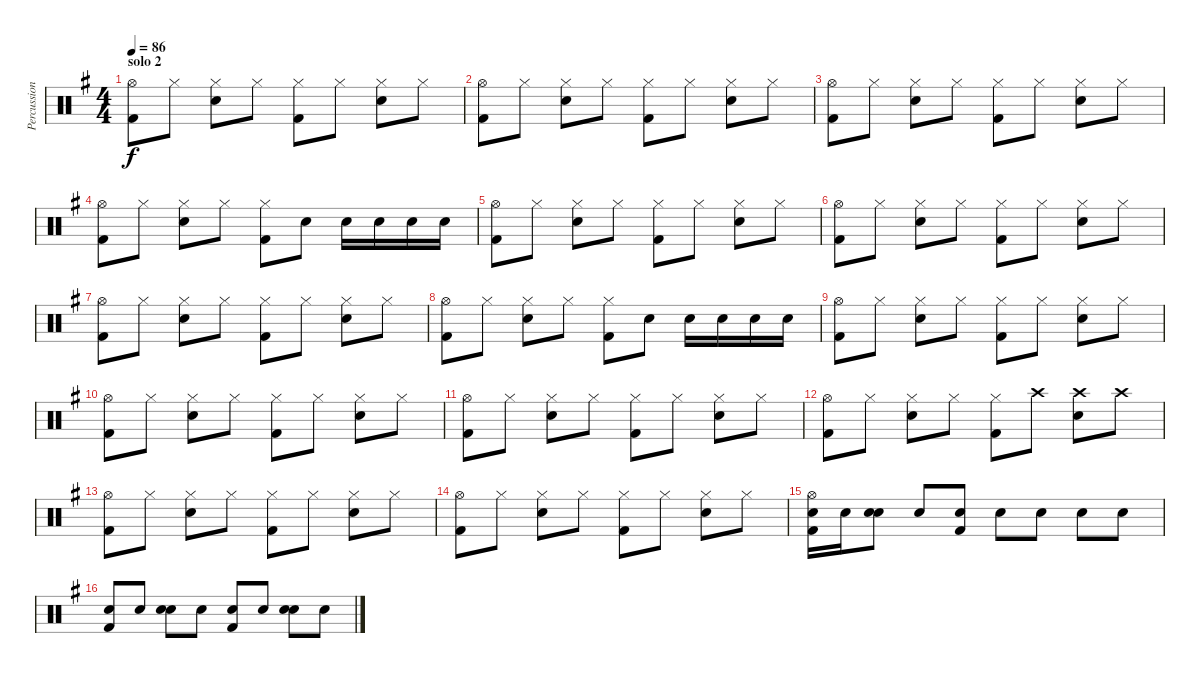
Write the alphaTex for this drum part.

\track ("Percussion" "Percussion") {instrument percussion}
\staff {score}
\articulation defaults
\ts (4 4)
\section ("" "solo 2")
\tempo 86
\clef neutral
\ks eminor
("Hi-Hat (open)" "Kick (hit) 2").8{dy f} "Hi-Hat (closed)".8 ("Hi-Hat (closed)" "Snare (hit) 2").8 "Hi-Hat (closed)".8 ("Hi-Hat (closed)" "Kick (hit) 2").8 "Hi-Hat (closed)".8 ("Hi-Hat (closed)" "Snare (hit) 2").8 "Hi-Hat (closed)".8 |
("Hi-Hat (open)" "Kick (hit) 2").8 "Hi-Hat (closed)".8 ("Hi-Hat (closed)" "Snare (hit) 2").8 "Hi-Hat (closed)".8 ("Hi-Hat (closed)" "Kick (hit) 2").8 "Hi-Hat (closed)".8 ("Hi-Hat (closed)" "Snare (hit) 2").8 "Hi-Hat (closed)".8 |
("Hi-Hat (open)" "Kick (hit) 2").8 "Hi-Hat (closed)".8 ("Hi-Hat (closed)" "Snare (hit) 2").8 "Hi-Hat (closed)".8 ("Hi-Hat (closed)" "Kick (hit) 2").8 "Hi-Hat (closed)".8 ("Hi-Hat (closed)" "Snare (hit) 2").8 "Hi-Hat (closed)".8 |
("Hi-Hat (open)" "Kick (hit) 2").8 "Hi-Hat (closed)".8 ("Hi-Hat (closed)" "Snare (hit) 2").8 "Hi-Hat (closed)".8 ("Hi-Hat (closed)" "Kick (hit) 2").8 "Snare (hit) 2".8 "Snare (hit) 2".16 "Snare (hit) 2".16 "Snare (hit) 2".16 "Snare (hit) 2".16 |
("Hi-Hat (open)" "Kick (hit) 2").8 "Hi-Hat (closed)".8 ("Hi-Hat (closed)" "Snare (hit) 2").8 "Hi-Hat (closed)".8 ("Hi-Hat (closed)" "Kick (hit) 2").8 "Hi-Hat (closed)".8 ("Hi-Hat (closed)" "Snare (hit) 2").8 "Hi-Hat (closed)".8 |
("Hi-Hat (open)" "Kick (hit) 2").8 "Hi-Hat (closed)".8 ("Hi-Hat (closed)" "Snare (hit) 2").8 "Hi-Hat (closed)".8 ("Hi-Hat (closed)" "Kick (hit) 2").8 "Hi-Hat (closed)".8 ("Hi-Hat (closed)" "Snare (hit) 2").8 "Hi-Hat (closed)".8 |
("Hi-Hat (open)" "Kick (hit) 2").8 "Hi-Hat (closed)".8 ("Hi-Hat (closed)" "Snare (hit) 2").8 "Hi-Hat (closed)".8 ("Hi-Hat (closed)" "Kick (hit) 2").8 "Hi-Hat (closed)".8 ("Hi-Hat (closed)" "Snare (hit) 2").8 "Hi-Hat (closed)".8 |
("Hi-Hat (open)" "Kick (hit) 2").8 "Hi-Hat (closed)".8 ("Hi-Hat (closed)" "Snare (hit) 2").8 "Hi-Hat (closed)".8 ("Hi-Hat (closed)" "Kick (hit) 2").8 "Snare (hit) 2".8 "Snare (hit) 2".16 "Snare (hit) 2".16 "Snare (hit) 2".16 "Snare (hit) 2".16 |
("Hi-Hat (open)" "Kick (hit) 2").8 "Hi-Hat (closed)".8 ("Hi-Hat (closed)" "Snare (hit) 2").8 "Hi-Hat (closed)".8 ("Hi-Hat (closed)" "Kick (hit) 2").8 "Hi-Hat (closed)".8 ("Hi-Hat (closed)" "Snare (hit) 2").8 "Hi-Hat (closed)".8 |
("Hi-Hat (open)" "Kick (hit) 2").8 "Hi-Hat (closed)".8 ("Hi-Hat (closed)" "Snare (hit) 2").8 "Hi-Hat (closed)".8 ("Hi-Hat (closed)" "Kick (hit) 2").8 "Hi-Hat (closed)".8 ("Hi-Hat (closed)" "Snare (hit) 2").8 "Hi-Hat (closed)".8 |
("Hi-Hat (open)" "Kick (hit) 2").8 "Hi-Hat (closed)".8 ("Hi-Hat (closed)" "Snare (hit) 2").8 "Hi-Hat (closed)".8 ("Hi-Hat (closed)" "Kick (hit) 2").8 "Hi-Hat (closed)".8 ("Hi-Hat (closed)" "Snare (hit) 2").8 "Hi-Hat (closed)".8 |
("Hi-Hat (open)" "Kick (hit) 2").8 "Hi-Hat (closed)".8 ("Hi-Hat (closed)" "Snare (hit) 2").8 "Hi-Hat (closed)".8 ("Hi-Hat (closed)" "Kick (hit) 2").8 "Crash high (hit)".8 ("Crash high (hit)" "Snare (hit) 2").8 "Crash high (hit)".8 |
("Hi-Hat (open)" "Kick (hit) 2").8 "Hi-Hat (closed)".8 ("Hi-Hat (closed)" "Snare (hit) 2").8 "Hi-Hat (closed)".8 ("Hi-Hat (closed)" "Kick (hit) 2").8 "Hi-Hat (closed)".8 ("Hi-Hat (closed)" "Snare (hit) 2").8 "Hi-Hat (closed)".8 |
("Hi-Hat (open)" "Kick (hit) 2").8 "Hi-Hat (closed)".8 ("Hi-Hat (closed)" "Snare (hit) 2").8 "Hi-Hat (closed)".8 ("Hi-Hat (closed)" "Kick (hit) 2").8 "Hi-Hat (closed)".8 ("Hi-Hat (closed)" "Snare (hit) 2").8 "Hi-Hat (closed)".8 |
("Hi-Hat (open)" "Electric Snare (hit)" "Kick (hit) 2").16 "Snare (hit) 2".16 ("Snare (hit) 2" "Snare (hit) 2").8 "Snare (hit) 2".8 ("Snare (hit) 2" "Kick (hit) 2").8 "Snare (hit) 2".8 "Snare (hit) 2".8 "Snare (hit) 2".8 "Snare (hit) 2".8 |
("Snare (hit) 2" "Kick (hit) 2").8 "Snare (hit) 2".8 ("Snare (hit) 2" "Snare (hit) 2").8 "Snare (hit) 2".8 ("Snare (hit) 2" "Kick (hit) 2").8 "Snare (hit) 2".8 ("Snare (hit) 2" "Snare (hit) 2").8 "Snare (hit) 2".8
